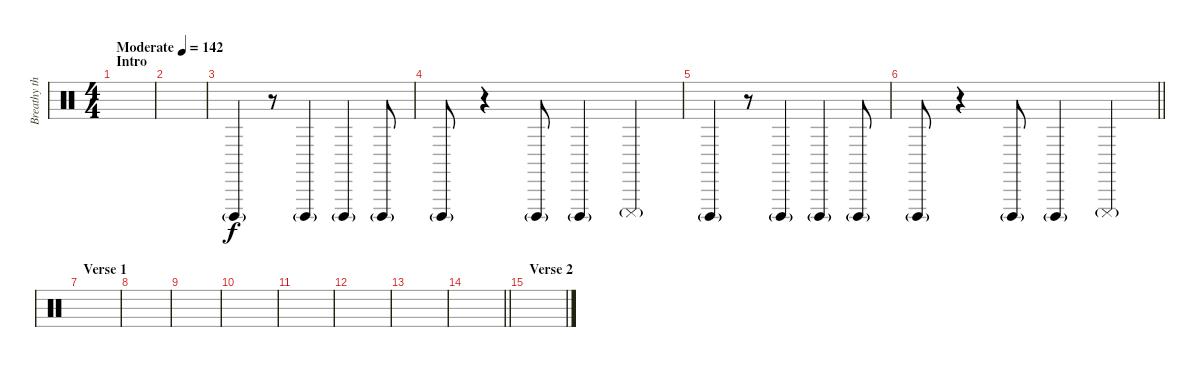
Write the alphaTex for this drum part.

\track ("Breathy things" "Breathy th") {instrument percussion}
\staff {score}
\articulation defaults
\ts (4 4)
\section ("" "Intro")
\tempo (142 "Moderate")
\clef neutral
\ks c
|
|
"Cuica (open)"{g}.4 r.8 "Cuica (open)"{g}.4 "Cuica (open)"{g}.4 "Cuica (open)"{g}.8 |
"Cuica (open)"{g}.8 r.4 "Cuica (open)"{g}.8 "Cuica (open)"{g}.4 "Cuica (mute)"{g}.4 |
"Cuica (open)"{g}.4 r.8 "Cuica (open)"{g}.4 "Cuica (open)"{g}.4 "Cuica (open)"{g}.8 |
\barLineRight lightlight "Cuica (open)"{g}.8
r.4 "Cuica (open)"{g}.8 "Cuica (open)"{g}.4 "Cuica (mute)"{g}.4 |
\section ("" "Verse 1")
|
|
|
|
|
|
|
\barLineRight lightlight
|
\section ("" "Verse 2")
